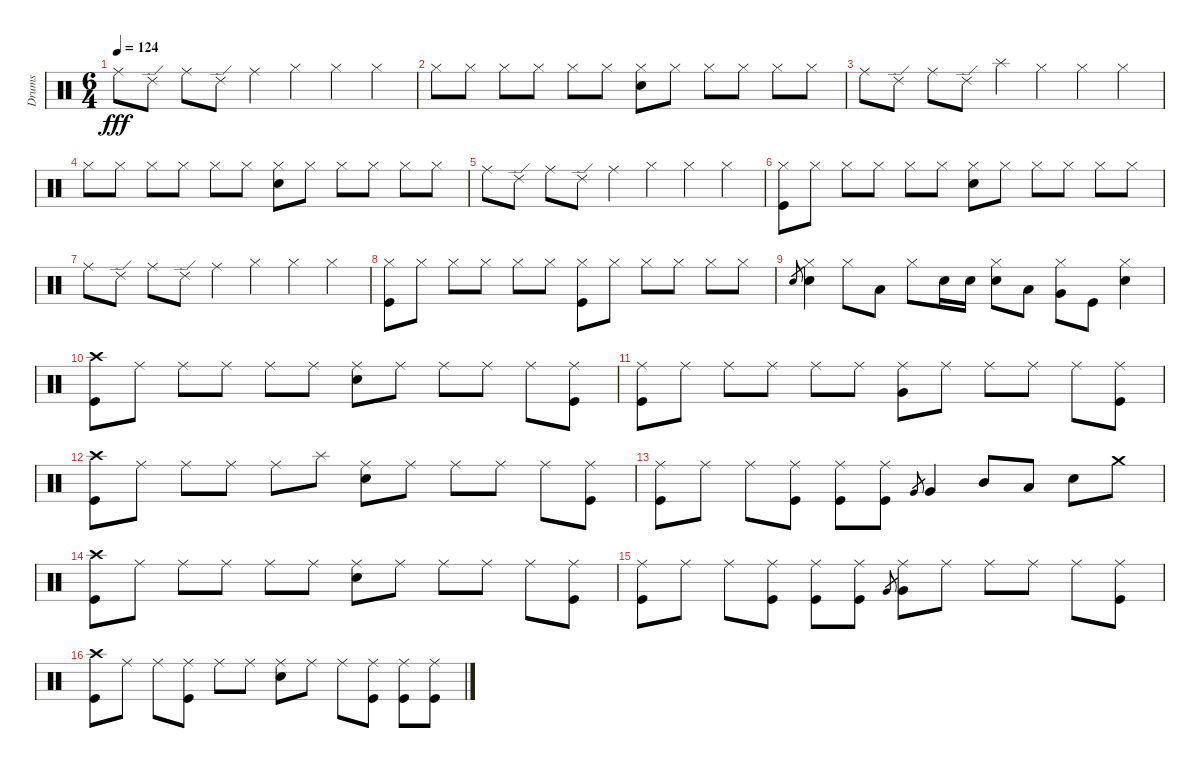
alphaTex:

\track ("Drums" "Drums") {instrument percussion}
\staff {score}
\articulation defaults
\ts (6 4)
\tempo 124
\clef neutral
\ks c "Ride (middle)".8{dy fff} "Ride (edge) 2".8 "Ride (middle)".8 "Ride (edge) 2".8 "Ride (middle)".4 "Hi-Hat (closed)".4 "Hi-Hat (closed)".4 "Hi-Hat (closed)".4
|
"Hi-Hat (closed)".8 "Hi-Hat (closed)".8 "Hi-Hat (closed)".8 "Hi-Hat (closed)".8 "Hi-Hat (closed)".8 "Hi-Hat (closed)".8 ("Hi-Hat (closed)" "Electric Snare (hit)").8 "Hi-Hat (closed)".8 "Hi-Hat (closed)".8 "Hi-Hat (closed)".8 "Hi-Hat (closed)".8 "Hi-Hat (closed)".8 |
"Ride (middle)".8 "Ride (edge) 2".8 "Ride (middle)".8 "Ride (edge) 2".8 "Splash (hit)".4 "Hi-Hat (closed)".4 "Hi-Hat (closed)".4 "Hi-Hat (closed)".4 |
"Hi-Hat (closed)".8 "Hi-Hat (closed)".8 "Hi-Hat (closed)".8 "Hi-Hat (closed)".8 "Hi-Hat (closed)".8 "Hi-Hat (closed)".8 ("Hi-Hat (closed)" "Electric Snare (hit)").8 "Hi-Hat (closed)".8 "Hi-Hat (closed)".8 "Hi-Hat (closed)".8 "Hi-Hat (closed)".8 "Hi-Hat (closed)".8 |
"Ride (middle)".8 "Ride (edge) 2".8 "Ride (middle)".8 "Ride (edge) 2".8 "Ride (middle)".4 "Hi-Hat (closed)".4 "Hi-Hat (closed)".4 "Hi-Hat (closed)".4 |
("Hi-Hat (closed)" "Kick (hit)").8 "Hi-Hat (closed)".8 "Hi-Hat (closed)".8 "Hi-Hat (closed)".8 "Hi-Hat (closed)".8 "Hi-Hat (closed)".8 ("Hi-Hat (closed)" "Snare (hit) 2").8 "Hi-Hat (closed)".8 "Hi-Hat (closed)".8 "Hi-Hat (closed)".8 "Hi-Hat (closed)".8 "Hi-Hat (closed)".8 |
"Ride (middle)".8 "Ride (edge) 2".8 "Ride (middle)".8 "Ride (edge) 2".8 "Ride (middle)".4 "Hi-Hat (closed)".4 "Hi-Hat (closed)".4 "Hi-Hat (closed)".4 |
("Hi-Hat (closed)" "Kick (hit)").8 "Hi-Hat (closed)".8 "Hi-Hat (closed)".8 "Hi-Hat (closed)".8 "Hi-Hat (closed)".8 "Hi-Hat (closed)".8 ("Hi-Hat (closed)" "Kick (hit)").8 "Hi-Hat (closed)".8 "Hi-Hat (closed)".8 "Hi-Hat (closed)".8 "Hi-Hat (closed)".8 "Hi-Hat (closed)".8 |
"Snare (hit) 2".8{gr} ("Hi-Hat (closed)" "Snare (hit) 2").4 "Hi-Hat (closed)".8 "Low Tom (hit)".8 "Hi-Hat (closed)".8 "Snare (hit) 2".16 "Snare (hit) 2".16 ("Hi-Hat (closed)" "Snare (hit) 2").8 "Low Tom (hit)".8 ("Hi-Hat (closed)" "Very Low Tom (hit)").8 "Kick (hit)".8 ("Hi-Hat (closed)" "Snare (hit) 2").4 |
("Crash high (hit)" "Kick (hit)").8 "Ride (middle)".8 "Ride (middle)".8 "Ride (middle)".8 "Ride (middle)".8 "Ride (middle)".8 ("Ride (middle)" "Snare (hit) 2").8 "Ride (middle)".8 "Ride (middle)".8 "Ride (middle)".8 "Ride (middle)".8 ("Ride (middle)" "Kick (hit)").8 |
("Ride (middle)" "Kick (hit)").8 "Ride (middle)".8 "Ride (middle)".8 "Ride (middle)".8 "Ride (middle)".8 "Ride (middle)".8 ("Ride (middle)" "Very Low Tom (hit)").8 "Ride (middle)".8 "Ride (middle)".8 "Ride (middle)".8 "Ride (middle)".8 ("Ride (middle)" "Kick (hit)").8 |
("Crash high (hit)" "Kick (hit)").8 "Ride (middle)".8 "Ride (middle)".8 "Ride (middle)".8 "Ride (middle)".8 "Splash (hit)".8 ("Ride (middle)" "Snare (hit) 2").8 "Ride (middle)".8 "Ride (middle)".8 "Ride (middle)".8 "Ride (middle)".8 ("Ride (middle)" "Kick (hit)").8 |
("Ride (middle)" "Kick (hit)").8 "Ride (middle)".8 "Ride (middle)".8 ("Ride (middle)" "Kick (hit)").8 ("Ride (middle)" "Kick (hit)").8 ("Ride (middle)" "Kick (hit)").8 "Very Low Tom (hit)".8{gr} "Very Low Tom (hit)".4 "Mid Tom (hit)".8 "Low Tom (hit)".8 "Snare (hit) 2".8 "Crash medium (hit)".8 |
("Crash high (hit)" "Kick (hit)").8 "Ride (middle)".8 "Ride (middle)".8 "Ride (middle)".8 "Ride (middle)".8 "Ride (middle)".8 ("Ride (middle)" "Snare (hit) 2").8 "Ride (middle)".8 "Ride (middle)".8 "Ride (middle)".8 "Ride (middle)".8 ("Ride (middle)" "Kick (hit)").8 |
("Ride (middle)" "Kick (hit)").8 "Ride (middle)".8 "Ride (middle)".8 ("Ride (middle)" "Kick (hit)").8 ("Ride (middle)" "Kick (hit)").8 ("Ride (middle)" "Kick (hit)").8 "Very Low Tom (hit)".8{gr} ("Ride (middle)" "Very Low Tom (hit)").8 "Ride (middle)".8 "Ride (middle)".8 "Ride (middle)".8 "Ride (middle)".8 ("Ride (middle)" "Kick (hit)").8 |
("Crash high (hit)" "Kick (hit)").8 "Ride (middle)".8 "Ride (middle)".8 ("Ride (middle)" "Kick (hit)").8 "Ride (middle)".8 "Ride (middle)".8 ("Ride (middle)" "Snare (hit) 2").8 "Ride (middle)".8 "Ride (middle)".8 ("Ride (middle)" "Kick (hit)").8 ("Ride (middle)" "Kick (hit)").8 ("Ride (middle)" "Kick (hit)").8
